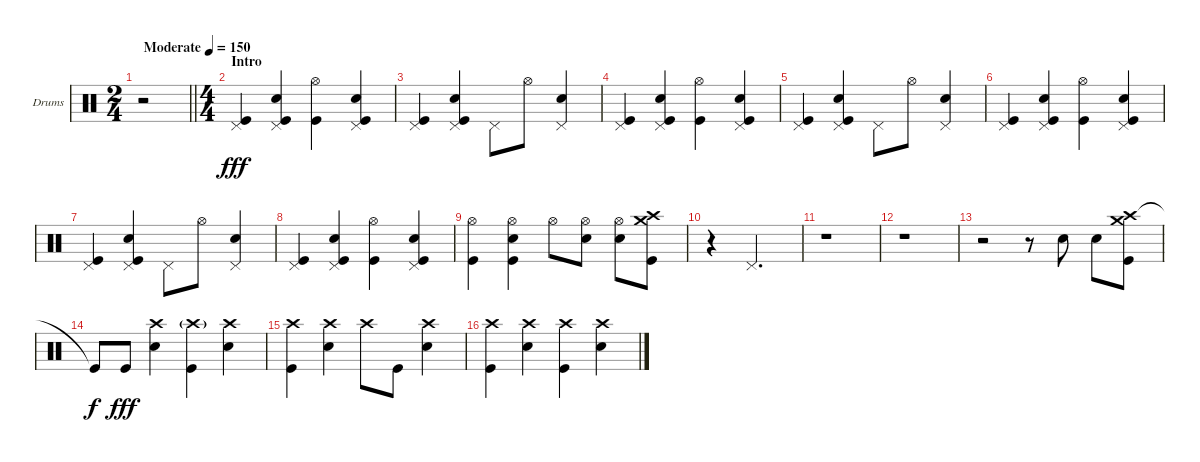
\bracketExtendMode groupsimilarinstruments
\firstSystemTrackNameOrientation horizontal
\otherSystemsTrackNameOrientation horizontal
\track ("Drumkit" "Drums") {instrument percussion}
\staff {score}
\articulation defaults
\ts (2 4)
\beaming (8 2 2 2 2)
\tempo (150 "Moderate")
\clef neutral
\barLineRight lightlight
\ks c
r.2{dy fff} |
\ts (4 4)
\beaming (8 2 2 2 2)
\section ("" "Intro")
("Pedal Hi-Hat (hit)" "Kick (hit)").4 ("Pedal Hi-Hat (hit)" "Snare (hit) 2" "Kick (hit)").4 ("Hi-Hat (open)" "Kick (hit)").4 ("Pedal Hi-Hat (hit)" "Snare (hit) 2" "Kick (hit)").4 |
("Pedal Hi-Hat (hit)" "Kick (hit)").4 ("Pedal Hi-Hat (hit)" "Snare (hit) 2" "Kick (hit)").4 "Pedal Hi-Hat (hit)".8 "Hi-Hat (open)".8 ("Pedal Hi-Hat (hit)" "Snare (hit) 2").4 |
("Pedal Hi-Hat (hit)" "Kick (hit)").4 ("Pedal Hi-Hat (hit)" "Snare (hit) 2" "Kick (hit)").4 ("Hi-Hat (open)" "Kick (hit)").4 ("Pedal Hi-Hat (hit)" "Snare (hit) 2" "Kick (hit)").4 |
("Pedal Hi-Hat (hit)" "Kick (hit)").4 ("Pedal Hi-Hat (hit)" "Snare (hit) 2" "Kick (hit)").4 "Pedal Hi-Hat (hit)".8 "Hi-Hat (open)".8 ("Pedal Hi-Hat (hit)" "Snare (hit) 2").4 |
("Pedal Hi-Hat (hit)" "Kick (hit)").4 ("Pedal Hi-Hat (hit)" "Snare (hit) 2" "Kick (hit)").4 ("Hi-Hat (open)" "Kick (hit)").4 ("Pedal Hi-Hat (hit)" "Snare (hit) 2" "Kick (hit)").4 |
("Pedal Hi-Hat (hit)" "Kick (hit)").4 ("Pedal Hi-Hat (hit)" "Snare (hit) 2" "Kick (hit)").4 "Pedal Hi-Hat (hit)".8 "Hi-Hat (open)".8 ("Pedal Hi-Hat (hit)" "Snare (hit) 2").4 |
("Pedal Hi-Hat (hit)" "Kick (hit)").4 ("Pedal Hi-Hat (hit)" "Snare (hit) 2" "Kick (hit)").4 ("Hi-Hat (open)" "Kick (hit)").4 ("Pedal Hi-Hat (hit)" "Snare (hit) 2" "Kick (hit)").4 |
("Hi-Hat (open)" "Kick (hit)").4 ("Hi-Hat (open)" "Snare (hit) 2" "Kick (hit)").4 "Hi-Hat (open)".8 ("Hi-Hat (open)" "Snare (hit) 2").8 ("Hi-Hat (open)" "Snare (hit) 2").8 ("Crash high (hit)" "Crash medium (hit)" "Kick (hit)").8 |
r.4 "Pedal Hi-Hat (hit)".2{d} |
r.1 |
r.1 |
r.2 r.8 "Snare (hit) 2".8 "Snare (hit) 2".8 ("Crash high (hit)" "Crash medium (hit)" "Kick (hit)").8 |
"Kick (hit)"{t}.8{dy f} "Kick (hit)".8{dy fff} ("Crash high (hit)" "Snare (hit) 2").4 ("Crash high (hit)"{g} "Kick (hit)").4 ("Crash high (hit)" "Snare (hit) 2").4 |
("Crash high (hit)" "Kick (hit)").4 ("Crash high (hit)" "Snare (hit) 2").4 "Crash high (hit)".8 "Kick (hit)".8 ("Crash high (hit)" "Snare (hit) 2").4 |
("Crash high (hit)" "Kick (hit)").4 ("Crash high (hit)" "Snare (hit) 2").4 ("Crash high (hit)" "Kick (hit)").4 ("Crash high (hit)" "Snare (hit) 2").4
